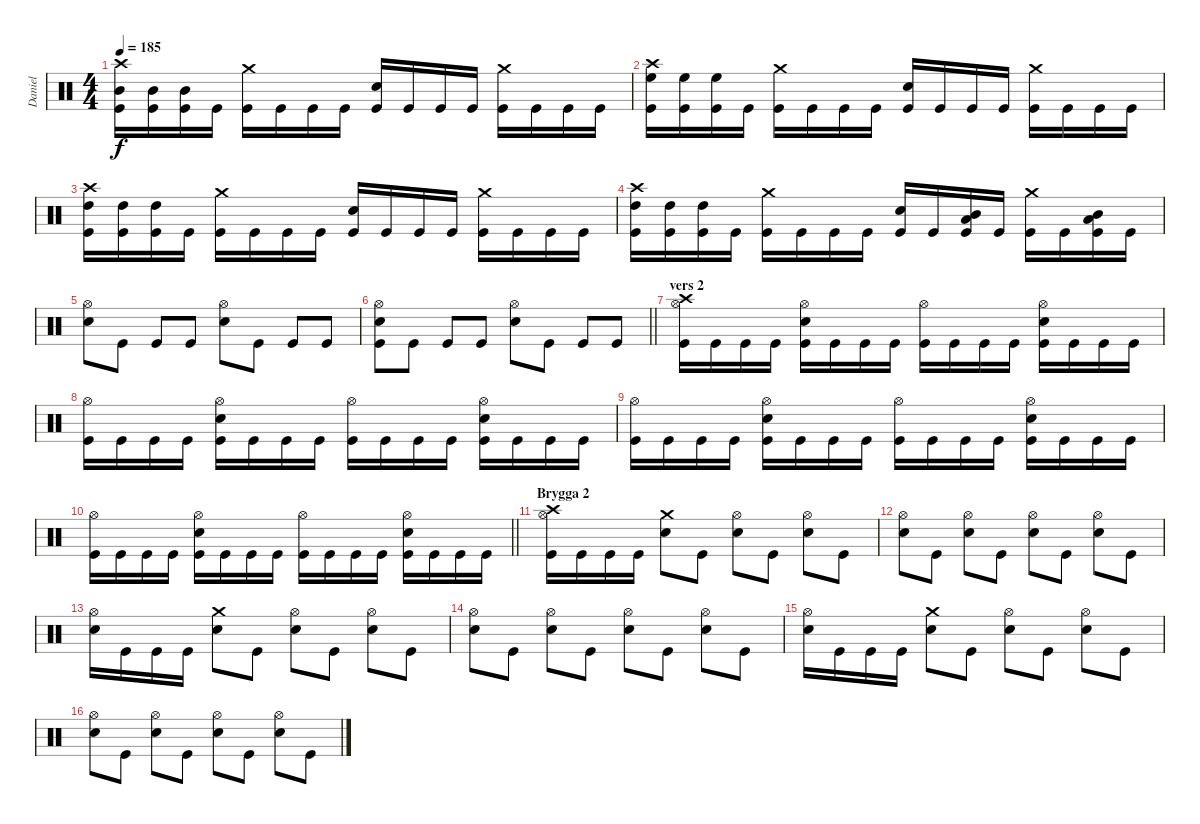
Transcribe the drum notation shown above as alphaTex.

\track ("Daniel" "Daniel") {instrument percussion}
\staff {score}
\articulation defaults
\ts (4 4)
\tempo 185
\clef neutral
\ks c
("Crash high (hit)" "Mid Tom (hit)" "Kick (hit)").16{dy f} ("Mid Tom (hit)" "Kick (hit)").16 ("Mid Tom (hit)" "Kick (hit)").16 "Kick (hit)".16 ("Crash medium (hit)" "Kick (hit)").16 "Kick (hit)".16 "Kick (hit)".16 "Kick (hit)".16 ("Electric Snare (hit)" "Kick (hit)").16 "Kick (hit)".16 "Kick (hit)".16 "Kick (hit)".16 ("Crash medium (hit)" "Kick (hit)").16 "Kick (hit)".16 "Kick (hit)".16 "Kick (hit)".16 |
("Crash high (hit)" "High Floor Tom (hit)" "Kick (hit)").16 ("High Floor Tom (hit)" "Kick (hit)").16 ("High Floor Tom (hit)" "Kick (hit)").16 "Kick (hit)".16 ("Crash medium (hit)" "Kick (hit)").16 "Kick (hit)".16 "Kick (hit)".16 "Kick (hit)".16 ("Electric Snare (hit)" "Kick (hit)").16 "Kick (hit)".16 "Kick (hit)".16 "Kick (hit)".16 ("Crash medium (hit)" "Kick (hit)").16 "Kick (hit)".16 "Kick (hit)".16 "Kick (hit)".16 |
("Crash high (hit)" "High Tom (hit)" "Kick (hit)").16 ("High Tom (hit)" "Kick (hit)").16 ("High Tom (hit)" "Kick (hit)").16 "Kick (hit)".16 ("Crash medium (hit)" "Kick (hit)").16 "Kick (hit)".16 "Kick (hit)".16 "Kick (hit)".16 ("Electric Snare (hit)" "Kick (hit)").16 "Kick (hit)".16 "Kick (hit)".16 "Kick (hit)".16 ("Crash medium (hit)" "Kick (hit)").16 "Kick (hit)".16 "Kick (hit)".16 "Kick (hit)".16 |
("Crash high (hit)" "High Tom (hit)" "Kick (hit)").16 ("High Tom (hit)" "Kick (hit)").16 ("High Tom (hit)" "Kick (hit)").16 "Kick (hit)".16 ("Crash medium (hit)" "Kick (hit)").16 "Kick (hit)".16 "Kick (hit)".16 "Kick (hit)".16 ("Electric Snare (hit)" "Kick (hit)").16 "Kick (hit)".16 ("Mid Tom (hit)" "Low Tom (hit)" "Kick (hit)").16 "Kick (hit)".16 ("Crash medium (hit)" "Kick (hit)").16 "Kick (hit)".16 ("Mid Tom (hit)" "Low Tom (hit)" "Kick (hit)").16 "Kick (hit)".16 |
("Hi-Hat (open)" "Electric Snare (hit)").8 "Kick (hit)".8 "Kick (hit)".8 "Kick (hit)".8 ("Hi-Hat (open)" "Electric Snare (hit)").8 "Kick (hit)".8 "Kick (hit)".8 "Kick (hit)".8 |
\barLineRight lightlight
("Hi-Hat (open)" "Electric Snare (hit)" "Kick (hit)").8 "Kick (hit)".8 "Kick (hit)".8 "Kick (hit)".8 ("Hi-Hat (open)" "Electric Snare (hit)").8 "Kick (hit)".8 "Kick (hit)".8 "Kick (hit)".8 |
\section ("" "vers 2")
("Crash high (hit)" "Hi-Hat (open)" "Kick (hit)").16 "Kick (hit)".16 "Kick (hit)".16 "Kick (hit)".16 ("Hi-Hat (open)" "Electric Snare (hit)" "Kick (hit)").16 "Kick (hit)".16 "Kick (hit)".16 "Kick (hit)".16 ("Hi-Hat (open)" "Kick (hit)").16 "Kick (hit)".16 "Kick (hit)".16 "Kick (hit)".16 ("Hi-Hat (open)" "Electric Snare (hit)" "Kick (hit)").16 "Kick (hit)".16 "Kick (hit)".16 "Kick (hit)".16 |
("Hi-Hat (open)" "Kick (hit)").16 "Kick (hit)".16 "Kick (hit)".16 "Kick (hit)".16 ("Hi-Hat (open)" "Electric Snare (hit)" "Kick (hit)").16 "Kick (hit)".16 "Kick (hit)".16 "Kick (hit)".16 ("Hi-Hat (open)" "Kick (hit)").16 "Kick (hit)".16 "Kick (hit)".16 "Kick (hit)".16 ("Hi-Hat (open)" "Electric Snare (hit)" "Kick (hit)").16 "Kick (hit)".16 "Kick (hit)".16 "Kick (hit)".16 |
("Hi-Hat (open)" "Kick (hit)").16 "Kick (hit)".16 "Kick (hit)".16 "Kick (hit)".16 ("Hi-Hat (open)" "Electric Snare (hit)" "Kick (hit)").16 "Kick (hit)".16 "Kick (hit)".16 "Kick (hit)".16 ("Hi-Hat (open)" "Kick (hit)").16 "Kick (hit)".16 "Kick (hit)".16 "Kick (hit)".16 ("Hi-Hat (open)" "Electric Snare (hit)" "Kick (hit)").16 "Kick (hit)".16 "Kick (hit)".16 "Kick (hit)".16 |
\barLineRight lightlight
("Hi-Hat (open)" "Kick (hit)").16 "Kick (hit)".16 "Kick (hit)".16 "Kick (hit)".16 ("Hi-Hat (open)" "Electric Snare (hit)" "Kick (hit)").16 "Kick (hit)".16 "Kick (hit)".16 "Kick (hit)".16 ("Hi-Hat (open)" "Kick (hit)").16 "Kick (hit)".16 "Kick (hit)".16 "Kick (hit)".16 ("Hi-Hat (open)" "Electric Snare (hit)" "Kick (hit)").16 "Kick (hit)".16 "Kick (hit)".16 "Kick (hit)".16 |
\section ("" "Brygga 2")
("Crash high (hit)" "Hi-Hat (open)" "Kick (hit)").16 "Kick (hit)".16 "Kick (hit)".16 "Kick (hit)".16 ("Crash medium (hit)" "Electric Snare (hit)").8 "Kick (hit)".8 ("Hi-Hat (open)" "Electric Snare (hit)").8 "Kick (hit)".8 ("Hi-Hat (open)" "Electric Snare (hit)").8 "Kick (hit)".8 |
("Hi-Hat (open)" "Electric Snare (hit)").8 "Kick (hit)".8 ("Hi-Hat (open)" "Electric Snare (hit)").8 "Kick (hit)".8 ("Hi-Hat (open)" "Electric Snare (hit)").8 "Kick (hit)".8 ("Hi-Hat (open)" "Electric Snare (hit)").8 "Kick (hit)".8 |
("Hi-Hat (open)" "Electric Snare (hit)").16 "Kick (hit)".16 "Kick (hit)".16 "Kick (hit)".16 ("Crash medium (hit)" "Electric Snare (hit)").8 "Kick (hit)".8 ("Hi-Hat (open)" "Electric Snare (hit)").8 "Kick (hit)".8 ("Hi-Hat (open)" "Electric Snare (hit)").8 "Kick (hit)".8 |
("Hi-Hat (open)" "Electric Snare (hit)").8 "Kick (hit)".8 ("Hi-Hat (open)" "Electric Snare (hit)").8 "Kick (hit)".8 ("Hi-Hat (open)" "Electric Snare (hit)").8 "Kick (hit)".8 ("Hi-Hat (open)" "Electric Snare (hit)").8 "Kick (hit)".8 |
("Hi-Hat (open)" "Electric Snare (hit)").16 "Kick (hit)".16 "Kick (hit)".16 "Kick (hit)".16 ("Crash medium (hit)" "Electric Snare (hit)").8 "Kick (hit)".8 ("Hi-Hat (open)" "Electric Snare (hit)").8 "Kick (hit)".8 ("Hi-Hat (open)" "Electric Snare (hit)").8 "Kick (hit)".8 |
("Hi-Hat (open)" "Electric Snare (hit)").8 "Kick (hit)".8 ("Hi-Hat (open)" "Electric Snare (hit)").8 "Kick (hit)".8 ("Hi-Hat (open)" "Electric Snare (hit)").8 "Kick (hit)".8 ("Hi-Hat (open)" "Electric Snare (hit)").8 "Kick (hit)".8
